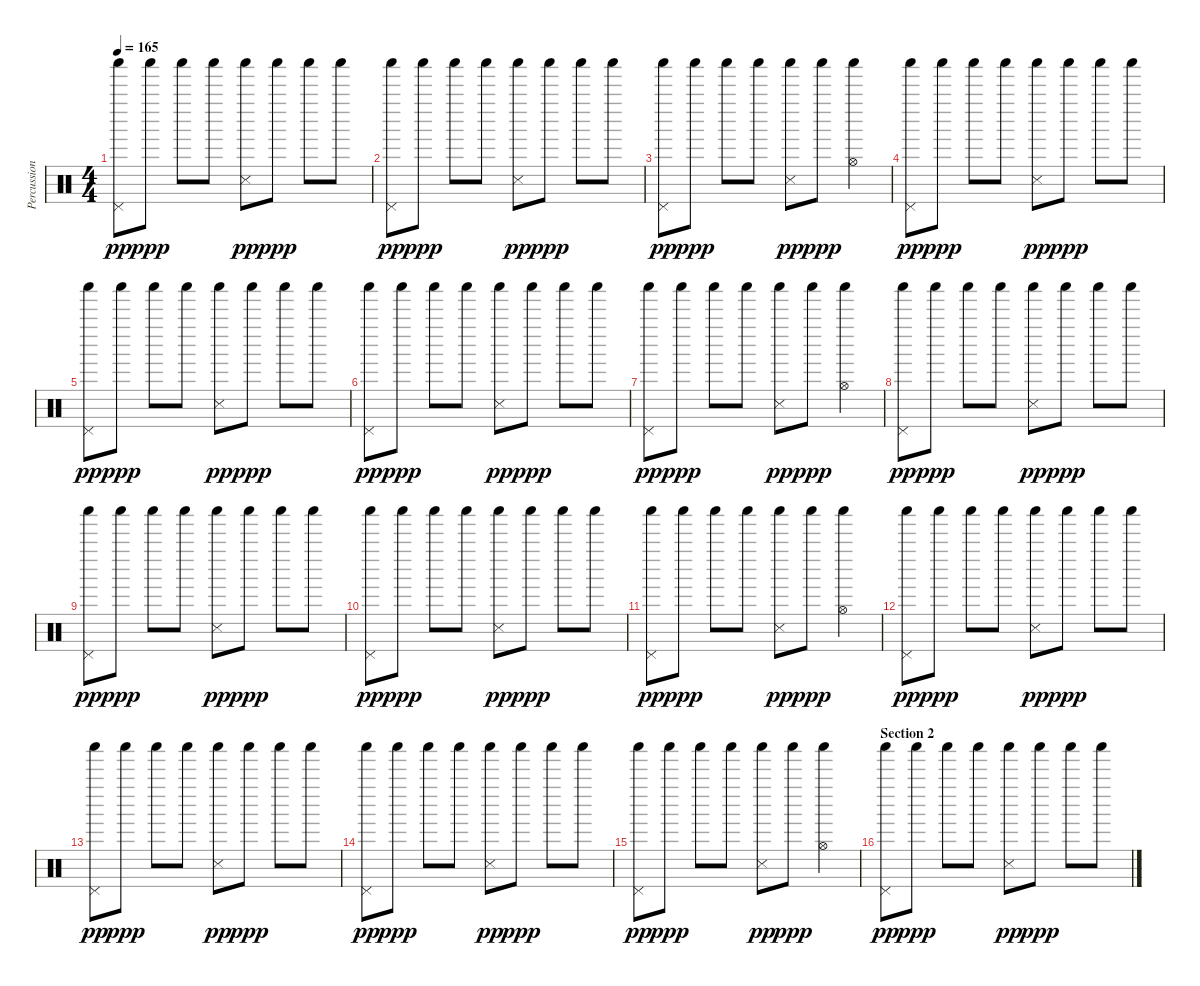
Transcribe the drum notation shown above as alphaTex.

\track ("Percussion" "Percussion") {instrument percussion}
\staff {score}
\articulation defaults
\ts (4 4)
\tempo 165
\clef neutral
\ks c
("Pedal Hi-Hat (hit)" "Shaker (hit)").8{dy pp} "Shaker (hit)".8{dy ppp} "Shaker (hit)".8 "Shaker (hit)".8 ("Snare (side stick) 3" "Shaker (hit)").8{dy pp} "Shaker (hit)".8{dy ppp} "Shaker (hit)".8 "Shaker (hit)".8 |
("Pedal Hi-Hat (hit)" "Shaker (hit)").8{dy pp} "Shaker (hit)".8{dy ppp} "Shaker (hit)".8 "Shaker (hit)".8 ("Snare (side stick) 3" "Shaker (hit)").8{dy pp} "Shaker (hit)".8{dy ppp} "Shaker (hit)".8 "Shaker (hit)".8 |
("Pedal Hi-Hat (hit)" "Shaker (hit)").8{dy pp} "Shaker (hit)".8{dy ppp} "Shaker (hit)".8 "Shaker (hit)".8 ("Snare (side stick) 3" "Shaker (hit)").8{dy pp} "Shaker (hit)".8{dy ppp} ("Hi-Hat (open)" "Shaker (hit)").4 |
("Pedal Hi-Hat (hit)" "Shaker (hit)").8{dy pp} "Shaker (hit)".8{dy ppp} "Shaker (hit)".8 "Shaker (hit)".8 ("Snare (side stick) 3" "Shaker (hit)").8{dy pp} "Shaker (hit)".8{dy ppp} "Shaker (hit)".8 "Shaker (hit)".8 |
("Pedal Hi-Hat (hit)" "Shaker (hit)").8{dy pp} "Shaker (hit)".8{dy ppp} "Shaker (hit)".8 "Shaker (hit)".8 ("Snare (side stick) 3" "Shaker (hit)").8{dy pp} "Shaker (hit)".8{dy ppp} "Shaker (hit)".8 "Shaker (hit)".8 |
("Pedal Hi-Hat (hit)" "Shaker (hit)").8{dy pp} "Shaker (hit)".8{dy ppp} "Shaker (hit)".8 "Shaker (hit)".8 ("Snare (side stick) 3" "Shaker (hit)").8{dy pp} "Shaker (hit)".8{dy ppp} "Shaker (hit)".8 "Shaker (hit)".8 |
("Pedal Hi-Hat (hit)" "Shaker (hit)").8{dy pp} "Shaker (hit)".8{dy ppp} "Shaker (hit)".8 "Shaker (hit)".8 ("Snare (side stick) 3" "Shaker (hit)").8{dy pp} "Shaker (hit)".8{dy ppp} ("Hi-Hat (open)" "Shaker (hit)").4 |
("Pedal Hi-Hat (hit)" "Shaker (hit)").8{dy pp} "Shaker (hit)".8{dy ppp} "Shaker (hit)".8 "Shaker (hit)".8 ("Snare (side stick) 3" "Shaker (hit)").8{dy pp} "Shaker (hit)".8{dy ppp} "Shaker (hit)".8 "Shaker (hit)".8 |
("Pedal Hi-Hat (hit)" "Shaker (hit)").8{dy pp} "Shaker (hit)".8{dy ppp} "Shaker (hit)".8 "Shaker (hit)".8 ("Snare (side stick) 3" "Shaker (hit)").8{dy pp} "Shaker (hit)".8{dy ppp} "Shaker (hit)".8 "Shaker (hit)".8 |
("Pedal Hi-Hat (hit)" "Shaker (hit)").8{dy pp} "Shaker (hit)".8{dy ppp} "Shaker (hit)".8 "Shaker (hit)".8 ("Snare (side stick) 3" "Shaker (hit)").8{dy pp} "Shaker (hit)".8{dy ppp} "Shaker (hit)".8 "Shaker (hit)".8 |
("Pedal Hi-Hat (hit)" "Shaker (hit)").8{dy pp} "Shaker (hit)".8{dy ppp} "Shaker (hit)".8 "Shaker (hit)".8 ("Snare (side stick) 3" "Shaker (hit)").8{dy pp} "Shaker (hit)".8{dy ppp} ("Hi-Hat (open)" "Shaker (hit)").4 |
("Pedal Hi-Hat (hit)" "Shaker (hit)").8{dy pp} "Shaker (hit)".8{dy ppp} "Shaker (hit)".8 "Shaker (hit)".8 ("Snare (side stick) 3" "Shaker (hit)").8{dy pp} "Shaker (hit)".8{dy ppp} "Shaker (hit)".8 "Shaker (hit)".8 |
("Pedal Hi-Hat (hit)" "Shaker (hit)").8{dy pp} "Shaker (hit)".8{dy ppp} "Shaker (hit)".8 "Shaker (hit)".8 ("Snare (side stick) 3" "Shaker (hit)").8{dy pp} "Shaker (hit)".8{dy ppp} "Shaker (hit)".8 "Shaker (hit)".8 |
("Pedal Hi-Hat (hit)" "Shaker (hit)").8{dy pp} "Shaker (hit)".8{dy ppp} "Shaker (hit)".8 "Shaker (hit)".8 ("Snare (side stick) 3" "Shaker (hit)").8{dy pp} "Shaker (hit)".8{dy ppp} "Shaker (hit)".8 "Shaker (hit)".8 |
("Pedal Hi-Hat (hit)" "Shaker (hit)").8{dy pp} "Shaker (hit)".8{dy ppp} "Shaker (hit)".8 "Shaker (hit)".8 ("Snare (side stick) 3" "Shaker (hit)").8{dy pp} "Shaker (hit)".8{dy ppp} ("Hi-Hat (open)" "Shaker (hit)").4 |
\section ("" "Section 2")
("Pedal Hi-Hat (hit)" "Shaker (hit)").8{dy pp} "Shaker (hit)".8{dy ppp} "Shaker (hit)".8 "Shaker (hit)".8 ("Snare (side stick) 3" "Shaker (hit)").8{dy pp} "Shaker (hit)".8{dy ppp} "Shaker (hit)".8 "Shaker (hit)".8
